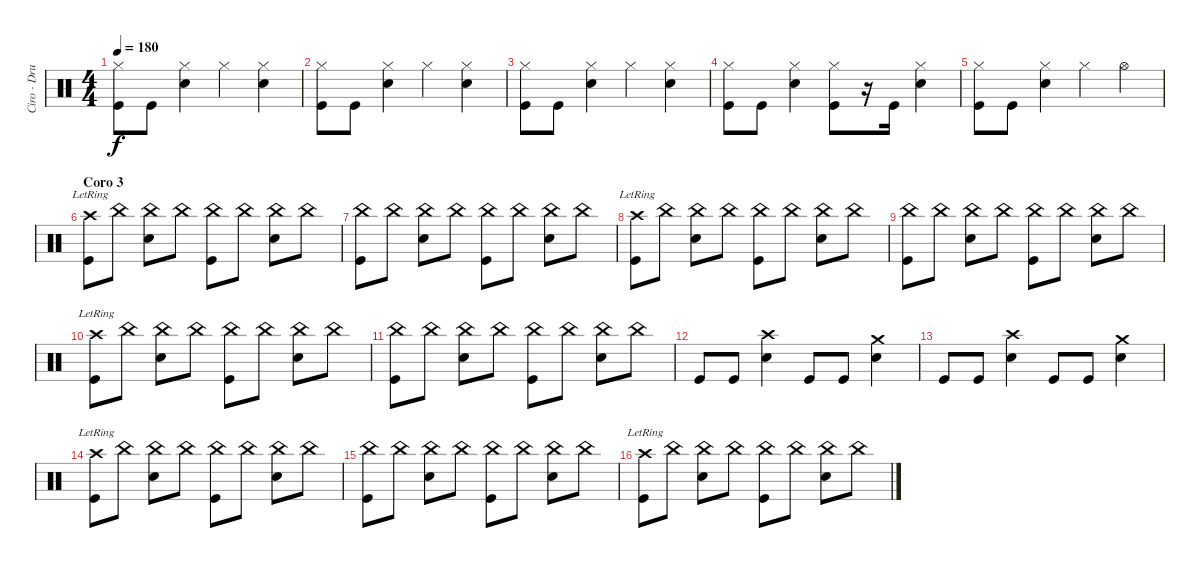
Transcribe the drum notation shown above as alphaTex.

\track ("Ciro - Drums" "Ciro - Dru") {instrument percussion}
\staff {score}
\articulation defaults
\ts (4 4)
\tempo 180
\clef neutral
\ks c
("Hi-Hat (closed)" "Kick (hit)").8{dy f} "Kick (hit)".8 ("Hi-Hat (closed)" "Electric Snare (hit)").4 "Hi-Hat (closed)".4 ("Hi-Hat (closed)" "Electric Snare (hit)").4 |
("Hi-Hat (closed)" "Kick (hit)").8 "Kick (hit)".8 ("Hi-Hat (closed)" "Electric Snare (hit)").4 "Hi-Hat (closed)".4 ("Hi-Hat (closed)" "Electric Snare (hit)").4 |
("Hi-Hat (closed)" "Kick (hit)").8 "Kick (hit)".8 ("Hi-Hat (closed)" "Electric Snare (hit)").4 "Hi-Hat (closed)".4 ("Hi-Hat (closed)" "Electric Snare (hit)").4 |
("Hi-Hat (closed)" "Kick (hit)").8 "Kick (hit)".8 ("Hi-Hat (closed)" "Electric Snare (hit)").4 ("Hi-Hat (closed)" "Kick (hit)").8 r.16 "Kick (hit)".16 ("Hi-Hat (closed)" "Electric Snare (hit)").4 |
("Hi-Hat (closed)" "Kick (hit)").8 "Kick (hit)".8 ("Hi-Hat (closed)" "Electric Snare (hit)").4 "Hi-Hat (closed)".4 "Hi-Hat (open)".4 |
\section ("" "Coro 3")
("Crash high (hit)"{lr} "Kick (hit)").8 "China (hit)".8 ("China (hit)" "Electric Snare (hit)").8 "China (hit)".8 ("China (hit)" "Kick (hit)").8 "China (hit)".8 ("China (hit)" "Electric Snare (hit)").8 "China (hit)".8 |
("China (hit)" "Kick (hit)").8 "China (hit)".8 ("China (hit)" "Electric Snare (hit)").8 "China (hit)".8 ("China (hit)" "Kick (hit)").8 "China (hit)".8 ("China (hit)" "Electric Snare (hit)").8 "China (hit)".8 |
("Crash high (hit)"{lr} "Kick (hit)").8 "China (hit)".8 ("China (hit)" "Electric Snare (hit)").8 "China (hit)".8 ("China (hit)" "Kick (hit)").8 "China (hit)".8 ("China (hit)" "Electric Snare (hit)").8 "China (hit)".8 |
("China (hit)" "Kick (hit)").8 "China (hit)".8 ("China (hit)" "Electric Snare (hit)").8 "China (hit)".8 ("China (hit)" "Kick (hit)").8 "China (hit)".8 ("China (hit)" "Electric Snare (hit)").8 "China (hit)".8 |
("Crash high (hit)"{lr} "Kick (hit)").8 "China (hit)".8 ("China (hit)" "Electric Snare (hit)").8 "China (hit)".8 ("China (hit)" "Kick (hit)").8 "China (hit)".8 ("China (hit)" "Electric Snare (hit)").8 "China (hit)".8 |
("China (hit)" "Kick (hit)").8 "China (hit)".8 ("China (hit)" "Electric Snare (hit)").8 "China (hit)".8 ("China (hit)" "Kick (hit)").8 "China (hit)".8 ("China (hit)" "Electric Snare (hit)").8 "China (hit)".8 |
"Kick (hit)".8 "Kick (hit)".8 ("Crash high (hit)" "Electric Snare (hit)").4 "Kick (hit)".8 "Kick (hit)".8 ("Crash medium (hit)" "Electric Snare (hit)").4 |
"Kick (hit)".8 "Kick (hit)".8 ("Crash high (hit)" "Electric Snare (hit)").4 "Kick (hit)".8 "Kick (hit)".8 ("Crash medium (hit)" "Electric Snare (hit)").4 |
("Crash high (hit)"{lr} "Kick (hit)").8 "China (hit)".8 ("China (hit)" "Electric Snare (hit)").8 "China (hit)".8 ("China (hit)" "Kick (hit)").8 "China (hit)".8 ("China (hit)" "Electric Snare (hit)").8 "China (hit)".8 |
("China (hit)" "Kick (hit)").8 "China (hit)".8 ("China (hit)" "Electric Snare (hit)").8 "China (hit)".8 ("China (hit)" "Kick (hit)").8 "China (hit)".8 ("China (hit)" "Electric Snare (hit)").8 "China (hit)".8 |
("Crash high (hit)"{lr} "Kick (hit)").8 "China (hit)".8 ("China (hit)" "Electric Snare (hit)").8 "China (hit)".8 ("China (hit)" "Kick (hit)").8 "China (hit)".8 ("China (hit)" "Electric Snare (hit)").8 "China (hit)".8
